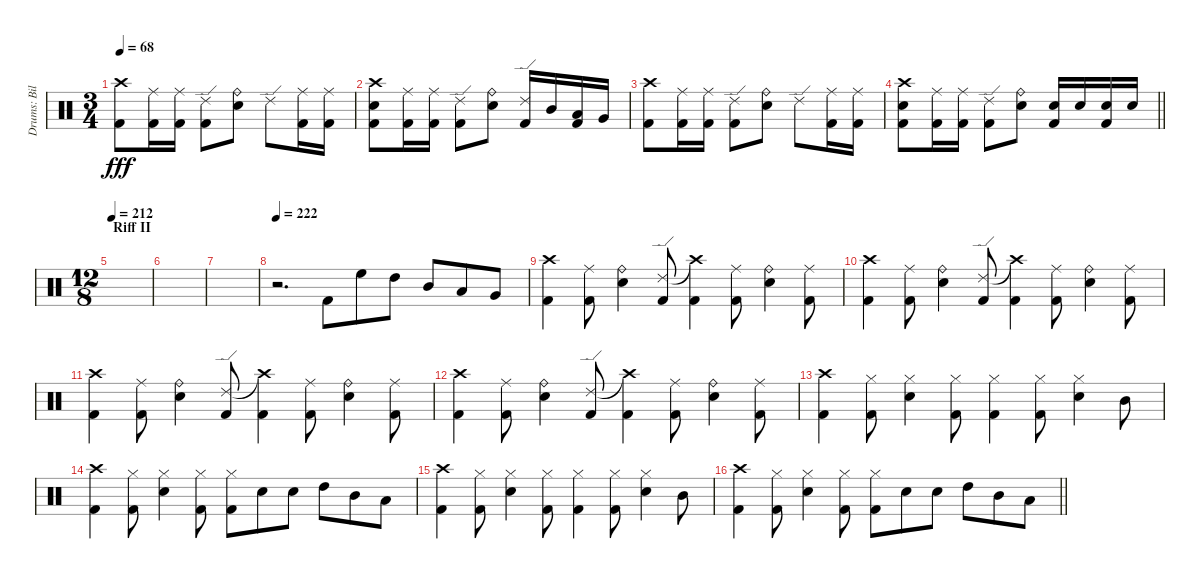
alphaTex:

\track ("Drums: Bill" "Drums: Bil") {instrument percussion}
\staff {score}
\articulation defaults
\ts (3 4)
\tempo 68
\clef neutral
\ks c
("Crash high (hit)" "Kick (hit) 2").8{dy fff} ("Ride (middle)" "Kick (hit) 2").16 ("Ride (middle)" "Kick (hit) 2").16 ("Ride (edge) 2" "Kick (hit) 2").8 ("Ride (bell)" "Electric Snare (hit)").8 "Ride (edge) 2".8 ("Ride (middle)" "Kick (hit) 2").16 ("Ride (middle)" "Kick (hit) 2").16 |
("Crash high (hit)" "Electric Snare (hit)" "Kick (hit) 2").8 ("Ride (middle)" "Kick (hit) 2").16 ("Ride (middle)" "Kick (hit) 2").16 ("Ride (edge) 2" "Kick (hit) 2").8 ("Ride (bell)" "Electric Snare (hit)").8 ("Ride (edge) 2" "Kick (hit) 2").16 "Mid Tom (hit)".16 ("Low Tom (hit)" "Kick (hit) 2").16 "Very Low Tom (hit)".16 |
("Crash high (hit)" "Kick (hit) 2").8 ("Ride (middle)" "Kick (hit) 2").16 ("Ride (middle)" "Kick (hit) 2").16 ("Ride (edge) 2" "Kick (hit) 2").8 ("Ride (bell)" "Electric Snare (hit)").8 "Ride (edge) 2".8 ("Ride (middle)" "Kick (hit) 2").16 ("Ride (middle)" "Kick (hit) 2").16 |
\barLineRight lightlight
("Crash high (hit)" "Electric Snare (hit)" "Kick (hit) 2").8 ("Ride (middle)" "Kick (hit) 2").16 ("Ride (middle)" "Kick (hit) 2").16 ("Ride (edge) 2" "Kick (hit) 2").8 ("Ride (bell)" "Electric Snare (hit)").8 ("Electric Snare (hit)" "Kick (hit) 2").16 "Electric Snare (hit)".16 ("Electric Snare (hit)" "Kick (hit) 2").16 "Electric Snare (hit)".16 |
\ts (12 8)
\section ("" "Riff II")
\tempo 212
|
|
|
\tempo 222
r.2{d} "Kick (hit) 2".8 "High Floor Tom (hit)".8 "High Tom (hit)".8 "Mid Tom (hit)".8 "Low Tom (hit)".8 "Very Low Tom (hit)".8 |
("Crash high (hit)" "Kick (hit) 2").4 ("Ride (middle)" "Kick (hit) 2").8 ("Ride (bell)" "Electric Snare (hit)").4 ("Ride (edge) 2" "Kick (hit) 2").8 ("Crash high (hit)"{t} "Kick (hit) 2").4 ("Ride (middle)" "Kick (hit) 2").8 ("Ride (bell)" "Electric Snare (hit)").4 ("Ride (middle)" "Kick (hit) 2").8 |
("Crash high (hit)" "Kick (hit) 2").4 ("Ride (middle)" "Kick (hit) 2").8 ("Ride (bell)" "Electric Snare (hit)").4 ("Ride (edge) 2" "Kick (hit) 2").8 ("Crash high (hit)"{t} "Kick (hit) 2").4 ("Ride (middle)" "Kick (hit) 2").8 ("Ride (bell)" "Electric Snare (hit)").4 ("Ride (middle)" "Kick (hit) 2").8 |
("Crash high (hit)" "Kick (hit) 2").4 ("Ride (middle)" "Kick (hit) 2").8 ("Ride (bell)" "Electric Snare (hit)").4 ("Ride (edge) 2" "Kick (hit) 2").8 ("Crash high (hit)"{t} "Kick (hit) 2").4 ("Ride (middle)" "Kick (hit) 2").8 ("Ride (bell)" "Electric Snare (hit)").4 ("Ride (middle)" "Kick (hit) 2").8 |
("Crash high (hit)" "Kick (hit) 2").4 ("Ride (middle)" "Kick (hit) 2").8 ("Ride (bell)" "Electric Snare (hit)").4 ("Ride (edge) 2" "Kick (hit) 2").8 ("Crash high (hit)"{t} "Kick (hit) 2").4 ("Ride (middle)" "Kick (hit) 2").8 ("Ride (bell)" "Electric Snare (hit)").4 ("Ride (middle)" "Kick (hit) 2").8 |
("Crash high (hit)" "Kick (hit) 2").4 ("Hi-Hat (closed)" "Kick (hit) 2").8 ("Hi-Hat (closed)" "Electric Snare (hit)").4 ("Hi-Hat (closed)" "Kick (hit) 2").8 ("Hi-Hat (closed)" "Kick (hit) 2").4 ("Hi-Hat (closed)" "Kick (hit) 2").8 ("Hi-Hat (closed)" "Electric Snare (hit)").4 "Mid Tom (hit)".8 |
("Crash high (hit)" "Kick (hit) 2").4 ("Hi-Hat (closed)" "Kick (hit) 2").8 ("Hi-Hat (closed)" "Electric Snare (hit)").4 ("Hi-Hat (closed)" "Kick (hit) 2").8 ("Hi-Hat (closed)" "Kick (hit) 2").8 "Electric Snare (hit)".8 "Electric Snare (hit)".8 "High Tom (hit)".8 "Mid Tom (hit)".8 "Low Tom (hit)".8 |
("Crash high (hit)" "Kick (hit) 2").4 ("Hi-Hat (closed)" "Kick (hit) 2").8 ("Hi-Hat (closed)" "Electric Snare (hit)").4 ("Hi-Hat (closed)" "Kick (hit) 2").8 ("Hi-Hat (closed)" "Kick (hit) 2").4 ("Hi-Hat (closed)" "Kick (hit) 2").8 ("Hi-Hat (closed)" "Electric Snare (hit)").4 "Mid Tom (hit)".8 |
\barLineRight lightlight
("Crash high (hit)" "Kick (hit) 2").4 ("Hi-Hat (closed)" "Kick (hit) 2").8 ("Hi-Hat (closed)" "Electric Snare (hit)").4 ("Hi-Hat (closed)" "Kick (hit) 2").8 ("Hi-Hat (closed)" "Kick (hit) 2").8 "Electric Snare (hit)".8 "Electric Snare (hit)".8 "High Tom (hit)".8 "Mid Tom (hit)".8 "Low Tom (hit)".8
